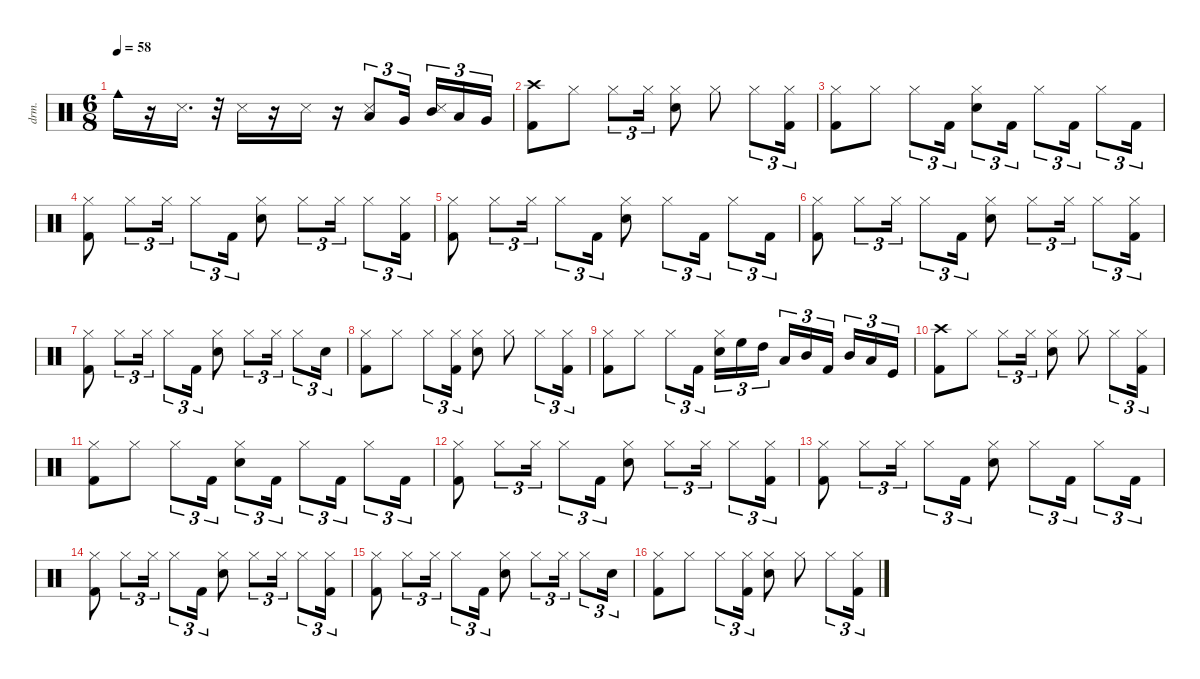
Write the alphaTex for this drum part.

\defaultSystemsLayout 4
\hideDynamics
\bracketExtendMode nobrackets
\otherSystemsTrackNameOrientation horizontal
\track ("Drums " "drm.") {instrument percussion}
\staff {score}
\articulation defaults
\ts (6 8)
\beaming (8 2 2 2 2)
\tempo 58
\clef neutral
\ks c "Cowbell medium (hit)".16{dy ff beam Down}
r.16{beam Down} "Snare (side stick) 3".16{d beam Down} r.32{beam Down} "Snare (side stick) 3".16{beam Down} r.16{beam Down} "Snare (side stick) 3".16{beam Down} r.16{beam Down} ("Snare (side stick) 3" "Low Floor Tom (hit)").8{tu (3 2) beam Up} "Very Low Tom (hit)".16{tu (3 2) dy mp beam Up} ("Snare (side stick) 3" "Mid Tom (hit)").16{tu (3 2) dy ff beam Up} "Low Tom (hit)".16{tu (3 2) dy mf beam Up} "Very Low Tom (hit)".16{tu (3 2) dy ff beam Up} |
("Kick (hit) 2" "Crash high (hit)").8{beam Down} "Hi-Hat (closed)".8{dy mf beam Down} "Hi-Hat (closed)".8{tu (3 2) dy f beam Down} "Hi-Hat (closed)".16{tu (3 2) dy mf beam Down} ("Snare (hit) 2" "Hi-Hat (closed)").8{dy ff beam Down} "Hi-Hat (closed)".8{dy mp beam Down} "Hi-Hat (closed)".8{tu (3 2) dy mf beam Down} ("Kick (hit) 2" "Hi-Hat (closed)").16{tu (3 2) beam Down} |
("Kick (hit) 2" "Hi-Hat (closed)").8{dy f beam Down} "Hi-Hat (closed)".8{dy mf beam Down} "Hi-Hat (closed)".8{tu (3 2) beam Down} "Kick (hit) 2".16{tu (3 2) beam Down} ("Snare (hit) 2" "Hi-Hat (closed)").8{tu (3 2) dy ff beam Down} "Kick (hit) 2".16{tu (3 2) dy mp beam Down} "Hi-Hat (closed)".8{tu (3 2) dy f beam Down} "Kick (hit) 2".16{tu (3 2) dy mp beam Down} "Hi-Hat (closed)".8{tu (3 2) dy ff beam Down} "Kick (hit) 2".16{tu (3 2) dy mp beam Down} |
("Kick (hit) 2" "Hi-Hat (closed)").8{dy ff beam Down} "Hi-Hat (closed)".8{tu (3 2) dy mf beam Down} "Hi-Hat (closed)".16{tu (3 2) beam Down} "Hi-Hat (closed)".8{tu (3 2) beam Down} "Kick (hit) 2".16{tu (3 2) beam Down} ("Snare (hit) 2" "Hi-Hat (closed)").8{dy ff beam Down} "Hi-Hat (closed)".8{tu (3 2) dy f beam Down} "Hi-Hat (closed)".16{tu (3 2) dy mf beam Down} "Hi-Hat (closed)".8{tu (3 2) dy f beam Down} ("Kick (hit) 2" "Hi-Hat (closed)").16{tu (3 2) dy mf beam Down} |
("Kick (hit) 2" "Hi-Hat (closed)").8{dy f beam Down} "Hi-Hat (closed)".8{tu (3 2) beam Down} "Hi-Hat (closed)".16{tu (3 2) dy mf beam Down} "Hi-Hat (closed)".8{tu (3 2) dy f beam Down} "Kick (hit) 2".16{tu (3 2) dy mf beam Down} ("Snare (hit) 2" "Hi-Hat (closed)").8{dy fff beam Down} "Hi-Hat (closed)".8{tu (3 2) dy mp beam Down} "Kick (hit) 2".16{tu (3 2) beam Down} "Hi-Hat (closed)".8{tu (3 2) dy mf beam Down} "Kick (hit) 2".16{tu (3 2) dy mp beam Down} |
("Kick (hit) 2" "Hi-Hat (closed)").8{dy mf beam Down} "Hi-Hat (closed)".8{tu (3 2) dy mp beam Down} "Hi-Hat (closed)".16{tu (3 2) dy mf beam Down} "Hi-Hat (closed)".8{tu (3 2) beam Down} "Kick (hit) 2".16{tu (3 2) dy mp beam Down} ("Snare (hit) 2" "Hi-Hat (closed)").8{dy ff beam Down} "Hi-Hat (closed)".8{tu (3 2) dy mf beam Down} "Hi-Hat (closed)".16{tu (3 2) beam Down} "Hi-Hat (closed)".8{tu (3 2) beam Down} ("Kick (hit) 2" "Hi-Hat (closed)").16{tu (3 2) dy p beam Down} |
("Kick (hit) 2" "Hi-Hat (closed)").8{dy f beam Down} "Hi-Hat (closed)".8{tu (3 2) dy mf beam Down} "Hi-Hat (closed)".16{tu (3 2) dy mp beam Down} "Hi-Hat (closed)".8{tu (3 2) dy mf beam Down} "Kick (hit) 2".16{tu (3 2) dy mp beam Down} ("Snare (hit) 2" "Hi-Hat (closed)").8{dy ff beam Down} "Hi-Hat (closed)".8{tu (3 2) dy mf beam Down} "Hi-Hat (closed)".16{tu (3 2) beam Down} "Hi-Hat (closed)".8{tu (3 2) beam Down} "Snare (hit) 2".16{tu (3 2) dy fff beam Down} |
("Kick (hit) 2" "Hi-Hat (closed)").8{dy ff beam Down} "Hi-Hat (closed)".8{dy mf beam Down} "Hi-Hat (closed)".8{tu (3 2) beam Down} ("Kick (hit) 2" "Hi-Hat (closed)").16{tu (3 2) beam Down} ("Snare (hit) 2" "Hi-Hat (closed)").8{dy ff beam Down} "Hi-Hat (closed)".8{dy mf beam Down} "Hi-Hat (closed)".8{tu (3 2) beam Down} ("Kick (hit) 2" "Hi-Hat (closed)").16{tu (3 2) beam Down} |
("Kick (hit) 2" "Hi-Hat (closed)").8{dy f beam Down} "Hi-Hat (closed)".8{dy mf beam Down} "Hi-Hat (closed)".8{tu (3 2) beam Down} "Kick (hit) 2".16{tu (3 2) beam Down} ("Snare (hit) 2" "Hi-Hat (closed)").16{tu (3 2) dy ff beam Down} "High Floor Tom (hit)".16{tu (3 2) beam Down} "High Tom (hit)".16{tu (3 2) dy mp beam Down} "Low Tom (hit)".16{tu (3 2) dy f beam Up} "Mid Tom (hit)".16{tu (3 2) dy ff beam Up} "Kick (hit) 2".16{tu (3 2) dy mp beam Up} "Mid Tom (hit)".16{tu (3 2) dy ff beam Up} "Low Tom (hit)".16{tu (3 2) beam Up} "Kick (hit)".16{tu (3 2) dy f beam Up} |
("Kick (hit) 2" "Crash high (hit)").8{dy ff beam Down} "Hi-Hat (closed)".8{dy mf beam Down} "Hi-Hat (closed)".8{tu (3 2) dy f beam Down} "Hi-Hat (closed)".16{tu (3 2) dy mf beam Down} ("Snare (hit) 2" "Hi-Hat (closed)").8{dy ff beam Down} "Hi-Hat (closed)".8{dy mp beam Down} "Hi-Hat (closed)".8{tu (3 2) dy mf beam Down} ("Kick (hit) 2" "Hi-Hat (closed)").16{tu (3 2) beam Down} |
("Kick (hit) 2" "Hi-Hat (closed)").8{dy f beam Down} "Hi-Hat (closed)".8{dy mf beam Down} "Hi-Hat (closed)".8{tu (3 2) beam Down} "Kick (hit) 2".16{tu (3 2) beam Down} ("Snare (hit) 2" "Hi-Hat (closed)").8{tu (3 2) dy ff beam Down} "Kick (hit) 2".16{tu (3 2) dy mp beam Down} "Hi-Hat (closed)".8{tu (3 2) dy f beam Down} "Kick (hit) 2".16{tu (3 2) dy mp beam Down} "Hi-Hat (closed)".8{tu (3 2) dy ff beam Down} "Kick (hit) 2".16{tu (3 2) dy mp beam Down} |
("Kick (hit) 2" "Hi-Hat (closed)").8{dy ff beam Down} "Hi-Hat (closed)".8{tu (3 2) dy mf beam Down} "Hi-Hat (closed)".16{tu (3 2) beam Down} "Hi-Hat (closed)".8{tu (3 2) beam Down} "Kick (hit) 2".16{tu (3 2) beam Down} ("Snare (hit) 2" "Hi-Hat (closed)").8{dy ff beam Down} "Hi-Hat (closed)".8{tu (3 2) dy f beam Down} "Hi-Hat (closed)".16{tu (3 2) dy mf beam Down} "Hi-Hat (closed)".8{tu (3 2) dy f beam Down} ("Kick (hit) 2" "Hi-Hat (closed)").16{tu (3 2) dy mf beam Down} |
("Kick (hit) 2" "Hi-Hat (closed)").8{dy f beam Down} "Hi-Hat (closed)".8{tu (3 2) beam Down} "Hi-Hat (closed)".16{tu (3 2) dy mf beam Down} "Hi-Hat (closed)".8{tu (3 2) dy f beam Down} "Kick (hit) 2".16{tu (3 2) dy mf beam Down} ("Snare (hit) 2" "Hi-Hat (closed)").8{dy fff beam Down} "Hi-Hat (closed)".8{tu (3 2) dy mp beam Down} "Kick (hit) 2".16{tu (3 2) beam Down} "Hi-Hat (closed)".8{tu (3 2) dy mf beam Down} "Kick (hit) 2".16{tu (3 2) dy mp beam Down} |
("Kick (hit) 2" "Hi-Hat (closed)").8{dy mf beam Down} "Hi-Hat (closed)".8{tu (3 2) dy mp beam Down} "Hi-Hat (closed)".16{tu (3 2) dy mf beam Down} "Hi-Hat (closed)".8{tu (3 2) beam Down} "Kick (hit) 2".16{tu (3 2) dy mp beam Down} ("Snare (hit) 2" "Hi-Hat (closed)").8{dy ff beam Down} "Hi-Hat (closed)".8{tu (3 2) dy mf beam Down} "Hi-Hat (closed)".16{tu (3 2) beam Down} "Hi-Hat (closed)".8{tu (3 2) beam Down} ("Kick (hit) 2" "Hi-Hat (closed)").16{tu (3 2) dy p beam Down} |
("Kick (hit) 2" "Hi-Hat (closed)").8{dy f beam Down} "Hi-Hat (closed)".8{tu (3 2) dy mf beam Down} "Hi-Hat (closed)".16{tu (3 2) dy mp beam Down} "Hi-Hat (closed)".8{tu (3 2) dy mf beam Down} "Kick (hit) 2".16{tu (3 2) dy mp beam Down} ("Snare (hit) 2" "Hi-Hat (closed)").8{dy ff beam Down} "Hi-Hat (closed)".8{tu (3 2) dy mf beam Down} "Hi-Hat (closed)".16{tu (3 2) beam Down} "Hi-Hat (closed)".8{tu (3 2) beam Down} "Snare (hit) 2".16{tu (3 2) dy fff beam Down} |
("Kick (hit) 2" "Hi-Hat (closed)").8{dy ff beam Down} "Hi-Hat (closed)".8{dy mf beam Down} "Hi-Hat (closed)".8{tu (3 2) beam Down} ("Kick (hit) 2" "Hi-Hat (closed)").16{tu (3 2) beam Down} ("Snare (hit) 2" "Hi-Hat (closed)").8{dy ff beam Down} "Hi-Hat (closed)".8{dy mf beam Down} "Hi-Hat (closed)".8{tu (3 2) beam Down} ("Kick (hit) 2" "Hi-Hat (closed)").16{tu (3 2) beam Down}
